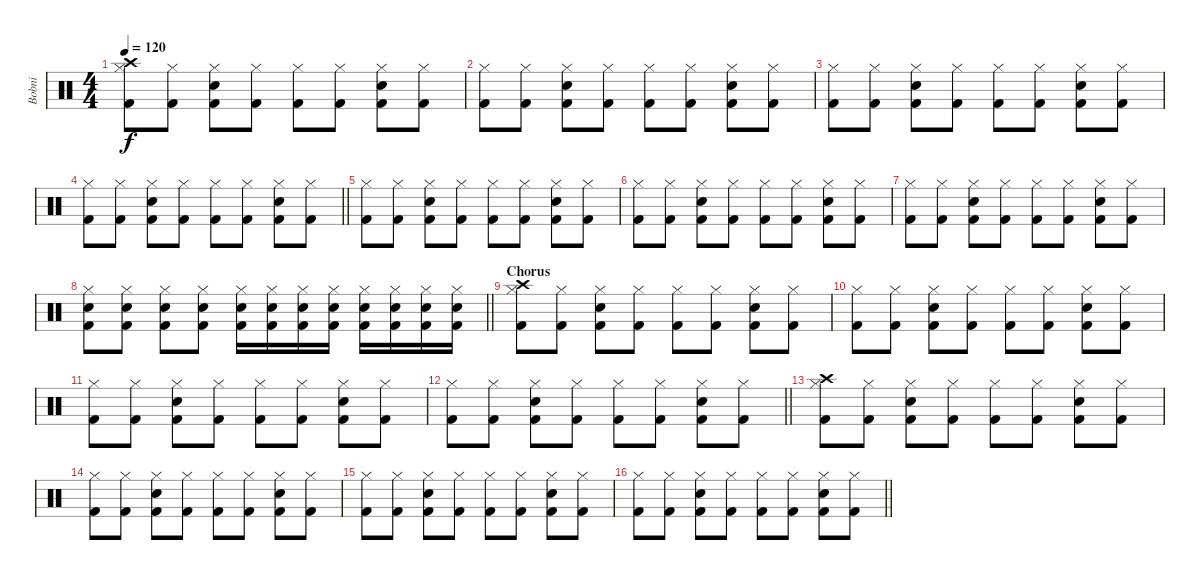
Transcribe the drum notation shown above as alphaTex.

\track ("Bobni" "Bobni") {instrument percussion}
\staff {score}
\articulation defaults
\ts (4 4)
\tempo 120
\clef neutral
\ks c
("Crash high (hit)" "Hi-Hat (closed)" "Kick (hit) 2").8{dy f} ("Hi-Hat (closed)" "Kick (hit) 2").8 ("Hi-Hat (closed)" "Electric Snare (hit)" "Kick (hit) 2").8 ("Hi-Hat (closed)" "Kick (hit) 2").8 ("Hi-Hat (closed)" "Kick (hit) 2").8 ("Hi-Hat (closed)" "Kick (hit) 2").8 ("Hi-Hat (closed)" "Electric Snare (hit)" "Kick (hit) 2").8 ("Hi-Hat (closed)" "Kick (hit) 2").8 |
("Hi-Hat (closed)" "Kick (hit) 2").8 ("Hi-Hat (closed)" "Kick (hit) 2").8 ("Hi-Hat (closed)" "Electric Snare (hit)" "Kick (hit) 2").8 ("Hi-Hat (closed)" "Kick (hit) 2").8 ("Hi-Hat (closed)" "Kick (hit) 2").8 ("Hi-Hat (closed)" "Kick (hit) 2").8 ("Hi-Hat (closed)" "Electric Snare (hit)" "Kick (hit) 2").8 ("Hi-Hat (closed)" "Kick (hit) 2").8 |
("Hi-Hat (closed)" "Kick (hit) 2").8 ("Hi-Hat (closed)" "Kick (hit) 2").8 ("Hi-Hat (closed)" "Electric Snare (hit)" "Kick (hit) 2").8 ("Hi-Hat (closed)" "Kick (hit) 2").8 ("Hi-Hat (closed)" "Kick (hit) 2").8 ("Hi-Hat (closed)" "Kick (hit) 2").8 ("Hi-Hat (closed)" "Electric Snare (hit)" "Kick (hit) 2").8 ("Hi-Hat (closed)" "Kick (hit) 2").8 |
\barLineRight lightlight
("Hi-Hat (closed)" "Kick (hit) 2").8 ("Hi-Hat (closed)" "Kick (hit) 2").8 ("Hi-Hat (closed)" "Electric Snare (hit)" "Kick (hit) 2").8 ("Hi-Hat (closed)" "Kick (hit) 2").8 ("Hi-Hat (closed)" "Kick (hit) 2").8 ("Hi-Hat (closed)" "Kick (hit) 2").8 ("Hi-Hat (closed)" "Electric Snare (hit)" "Kick (hit) 2").8 ("Hi-Hat (closed)" "Kick (hit) 2").8 |
("Hi-Hat (closed)" "Kick (hit) 2").8 ("Hi-Hat (closed)" "Kick (hit) 2").8 ("Hi-Hat (closed)" "Electric Snare (hit)" "Kick (hit) 2").8 ("Hi-Hat (closed)" "Kick (hit) 2").8 ("Hi-Hat (closed)" "Kick (hit) 2").8 ("Hi-Hat (closed)" "Kick (hit) 2").8 ("Hi-Hat (closed)" "Electric Snare (hit)" "Kick (hit) 2").8 ("Hi-Hat (closed)" "Kick (hit) 2").8 |
("Hi-Hat (closed)" "Kick (hit) 2").8 ("Hi-Hat (closed)" "Kick (hit) 2").8 ("Hi-Hat (closed)" "Electric Snare (hit)" "Kick (hit) 2").8 ("Hi-Hat (closed)" "Kick (hit) 2").8 ("Hi-Hat (closed)" "Kick (hit) 2").8 ("Hi-Hat (closed)" "Kick (hit) 2").8 ("Hi-Hat (closed)" "Electric Snare (hit)" "Kick (hit) 2").8 ("Hi-Hat (closed)" "Kick (hit) 2").8 |
("Hi-Hat (closed)" "Kick (hit) 2").8 ("Hi-Hat (closed)" "Kick (hit) 2").8 ("Hi-Hat (closed)" "Electric Snare (hit)" "Kick (hit) 2").8 ("Hi-Hat (closed)" "Kick (hit) 2").8 ("Hi-Hat (closed)" "Kick (hit) 2").8 ("Hi-Hat (closed)" "Kick (hit) 2").8 ("Hi-Hat (closed)" "Electric Snare (hit)" "Kick (hit) 2").8 ("Hi-Hat (closed)" "Kick (hit) 2").8 |
\barLineRight lightlight
("Hi-Hat (closed)" "Electric Snare (hit)" "Kick (hit) 2").8 ("Hi-Hat (closed)" "Electric Snare (hit)" "Kick (hit) 2").8 ("Hi-Hat (closed)" "Electric Snare (hit)" "Kick (hit) 2").8 ("Hi-Hat (closed)" "Electric Snare (hit)" "Kick (hit) 2").8 ("Hi-Hat (closed)" "Electric Snare (hit)" "Kick (hit) 2").16 ("Hi-Hat (closed)" "Electric Snare (hit)" "Kick (hit) 2").16 ("Hi-Hat (closed)" "Electric Snare (hit)" "Kick (hit) 2").16 ("Hi-Hat (closed)" "Electric Snare (hit)" "Kick (hit) 2").16 ("Hi-Hat (closed)" "Electric Snare (hit)" "Kick (hit) 2").16 ("Hi-Hat (closed)" "Electric Snare (hit)" "Kick (hit) 2").16 ("Hi-Hat (closed)" "Electric Snare (hit)" "Kick (hit) 2").16 ("Hi-Hat (closed)" "Electric Snare (hit)" "Kick (hit) 2").16 |
\section ("" "Chorus")
("Crash high (hit)" "Hi-Hat (closed)" "Kick (hit) 2").8 ("Hi-Hat (closed)" "Kick (hit) 2").8 ("Hi-Hat (closed)" "Electric Snare (hit)" "Kick (hit) 2").8 ("Hi-Hat (closed)" "Kick (hit) 2").8 ("Hi-Hat (closed)" "Kick (hit) 2").8 ("Hi-Hat (closed)" "Kick (hit) 2").8 ("Hi-Hat (closed)" "Electric Snare (hit)" "Kick (hit) 2").8 ("Hi-Hat (closed)" "Kick (hit) 2").8 |
("Hi-Hat (closed)" "Kick (hit) 2").8 ("Hi-Hat (closed)" "Kick (hit) 2").8 ("Hi-Hat (closed)" "Electric Snare (hit)" "Kick (hit) 2").8 ("Hi-Hat (closed)" "Kick (hit) 2").8 ("Hi-Hat (closed)" "Kick (hit) 2").8 ("Hi-Hat (closed)" "Kick (hit) 2").8 ("Hi-Hat (closed)" "Electric Snare (hit)" "Kick (hit) 2").8 ("Hi-Hat (closed)" "Kick (hit) 2").8 |
("Hi-Hat (closed)" "Kick (hit) 2").8 ("Hi-Hat (closed)" "Kick (hit) 2").8 ("Hi-Hat (closed)" "Electric Snare (hit)" "Kick (hit) 2").8 ("Hi-Hat (closed)" "Kick (hit) 2").8 ("Hi-Hat (closed)" "Kick (hit) 2").8 ("Hi-Hat (closed)" "Kick (hit) 2").8 ("Hi-Hat (closed)" "Electric Snare (hit)" "Kick (hit) 2").8 ("Hi-Hat (closed)" "Kick (hit) 2").8 |
\barLineRight lightlight
("Hi-Hat (closed)" "Kick (hit) 2").8 ("Hi-Hat (closed)" "Kick (hit) 2").8 ("Hi-Hat (closed)" "Electric Snare (hit)" "Kick (hit) 2").8 ("Hi-Hat (closed)" "Kick (hit) 2").8 ("Hi-Hat (closed)" "Kick (hit) 2").8 ("Hi-Hat (closed)" "Kick (hit) 2").8 ("Hi-Hat (closed)" "Electric Snare (hit)" "Kick (hit) 2").8 ("Hi-Hat (closed)" "Kick (hit) 2").8 |
("Crash high (hit)" "Hi-Hat (closed)" "Kick (hit) 2").8 ("Hi-Hat (closed)" "Kick (hit) 2").8 ("Hi-Hat (closed)" "Electric Snare (hit)" "Kick (hit) 2").8 ("Hi-Hat (closed)" "Kick (hit) 2").8 ("Hi-Hat (closed)" "Kick (hit) 2").8 ("Hi-Hat (closed)" "Kick (hit) 2").8 ("Hi-Hat (closed)" "Electric Snare (hit)" "Kick (hit) 2").8 ("Hi-Hat (closed)" "Kick (hit) 2").8 |
("Hi-Hat (closed)" "Kick (hit) 2").8 ("Hi-Hat (closed)" "Kick (hit) 2").8 ("Hi-Hat (closed)" "Electric Snare (hit)" "Kick (hit) 2").8 ("Hi-Hat (closed)" "Kick (hit) 2").8 ("Hi-Hat (closed)" "Kick (hit) 2").8 ("Hi-Hat (closed)" "Kick (hit) 2").8 ("Hi-Hat (closed)" "Electric Snare (hit)" "Kick (hit) 2").8 ("Hi-Hat (closed)" "Kick (hit) 2").8 |
("Hi-Hat (closed)" "Kick (hit) 2").8 ("Hi-Hat (closed)" "Kick (hit) 2").8 ("Hi-Hat (closed)" "Electric Snare (hit)" "Kick (hit) 2").8 ("Hi-Hat (closed)" "Kick (hit) 2").8 ("Hi-Hat (closed)" "Kick (hit) 2").8 ("Hi-Hat (closed)" "Kick (hit) 2").8 ("Hi-Hat (closed)" "Electric Snare (hit)" "Kick (hit) 2").8 ("Hi-Hat (closed)" "Kick (hit) 2").8 |
\barLineRight lightlight
("Hi-Hat (closed)" "Kick (hit) 2").8 ("Hi-Hat (closed)" "Kick (hit) 2").8 ("Hi-Hat (closed)" "Electric Snare (hit)" "Kick (hit) 2").8 ("Hi-Hat (closed)" "Kick (hit) 2").8 ("Hi-Hat (closed)" "Kick (hit) 2").8 ("Hi-Hat (closed)" "Kick (hit) 2").8 ("Hi-Hat (closed)" "Electric Snare (hit)" "Kick (hit) 2").8 ("Hi-Hat (closed)" "Kick (hit) 2").8
